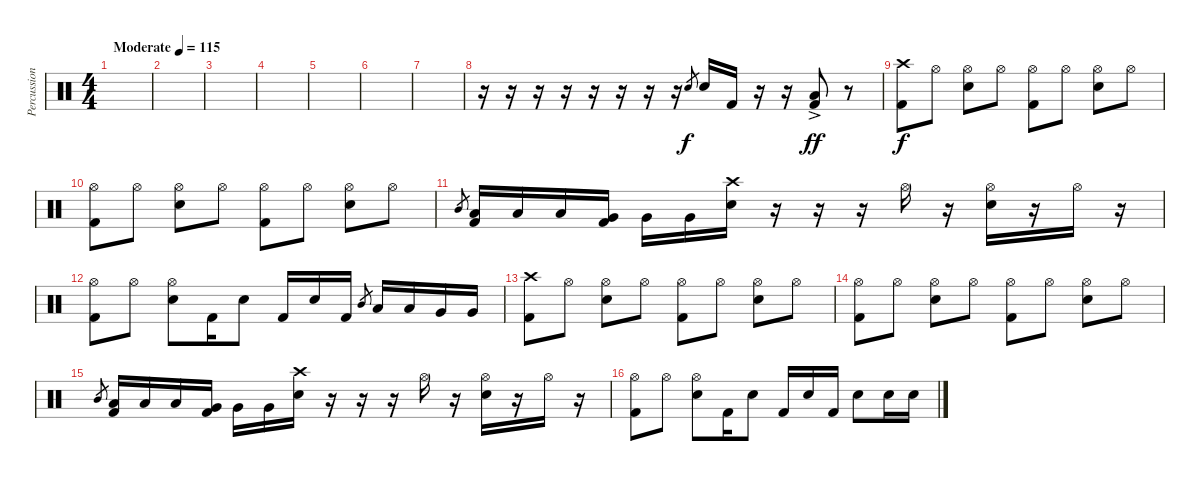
\track ("Percussion" "Percussion") {instrument percussion}
\staff {score}
\articulation defaults
\ts (4 4)
\tempo (115 "Moderate")
\clef neutral
\ks c
|
|
|
|
|
|
|
r.16 r.16 r.16 r.16 r.16 r.16 r.16 r.16 "Snare (hit) 2".8{gr} "Snare (hit) 2".16 "Kick (hit) 2".16 r.16 r.16 ("Low Floor Tom (hit)" "Kick (hit) 2"{ac}).8{dy ff} r.8 |
("Crash high (hit)" "Kick (hit) 2").8{dy f} "Hi-Hat (open)".8 ("Hi-Hat (open)" "Snare (hit) 2").8 "Hi-Hat (open)".8 ("Hi-Hat (open)" "Kick (hit) 2").8 "Hi-Hat (open)".8 ("Hi-Hat (open)" "Snare (hit) 2").8 "Hi-Hat (open)".8 |
("Hi-Hat (open)" "Kick (hit) 2").8 "Hi-Hat (open)".8 ("Hi-Hat (open)" "Snare (hit) 2").8 "Hi-Hat (open)".8 ("Hi-Hat (open)" "Kick (hit) 2").8 "Hi-Hat (open)".8 ("Hi-Hat (open)" "Snare (hit) 2").8 "Hi-Hat (open)".8 |
"Mid Tom (hit)".8{gr} ("Low Tom (hit)" "Kick (hit) 2").16 "Low Tom (hit)".16 "Low Tom (hit)".16 ("Very Low Tom (hit)" "Kick (hit) 2").16 "Very Low Tom (hit)".16 "Very Low Tom (hit)".16 ("Crash high (hit)" "Snare (hit) 2").16 r.16 r.16 r.16 "Hi-Hat (open)".16 r.16 ("Hi-Hat (open)" "Snare (hit) 2").16 r.16 "Hi-Hat (open)".16 r.16 |
("Hi-Hat (open)" "Kick (hit) 2").8 "Hi-Hat (open)".8 ("Hi-Hat (open)" "Snare (hit) 2").8 "Kick (hit) 2".16 "Snare (hit) 2".8 "Kick (hit) 2".16 "Snare (hit) 2".16 "Kick (hit) 2".16 "Mid Tom (hit)".8{gr} "Low Tom (hit)".16 "Low Tom (hit)".16 "Very Low Tom (hit)".16 "Very Low Tom (hit)".16 |
("Crash high (hit)" "Kick (hit) 2").8 "Hi-Hat (open)".8 ("Hi-Hat (open)" "Snare (hit) 2").8 "Hi-Hat (open)".8 ("Hi-Hat (open)" "Kick (hit) 2").8 "Hi-Hat (open)".8 ("Hi-Hat (open)" "Snare (hit) 2").8 "Hi-Hat (open)".8 |
("Hi-Hat (open)" "Kick (hit) 2").8 "Hi-Hat (open)".8 ("Hi-Hat (open)" "Snare (hit) 2").8 "Hi-Hat (open)".8 ("Hi-Hat (open)" "Kick (hit) 2").8 "Hi-Hat (open)".8 ("Hi-Hat (open)" "Snare (hit) 2").8 "Hi-Hat (open)".8 |
"Mid Tom (hit)".8{gr} ("Low Tom (hit)" "Kick (hit) 2").16 "Low Tom (hit)".16 "Low Tom (hit)".16 ("Very Low Tom (hit)" "Kick (hit) 2").16 "Very Low Tom (hit)".16 "Very Low Tom (hit)".16 ("Crash high (hit)" "Snare (hit) 2").16 r.16 r.16 r.16 "Hi-Hat (open)".16 r.16 ("Hi-Hat (open)" "Snare (hit) 2").16 r.16 "Hi-Hat (open)".16 r.16 |
("Hi-Hat (open)" "Kick (hit) 2").8 "Hi-Hat (open)".8 ("Hi-Hat (open)" "Snare (hit) 2").8 "Kick (hit) 2".16 "Snare (hit) 2".8 "Kick (hit) 2".16 "Snare (hit) 2".16 "Kick (hit) 2".16 "Snare (hit) 2".8 "Snare (hit) 2".16 "Snare (hit) 2".16
